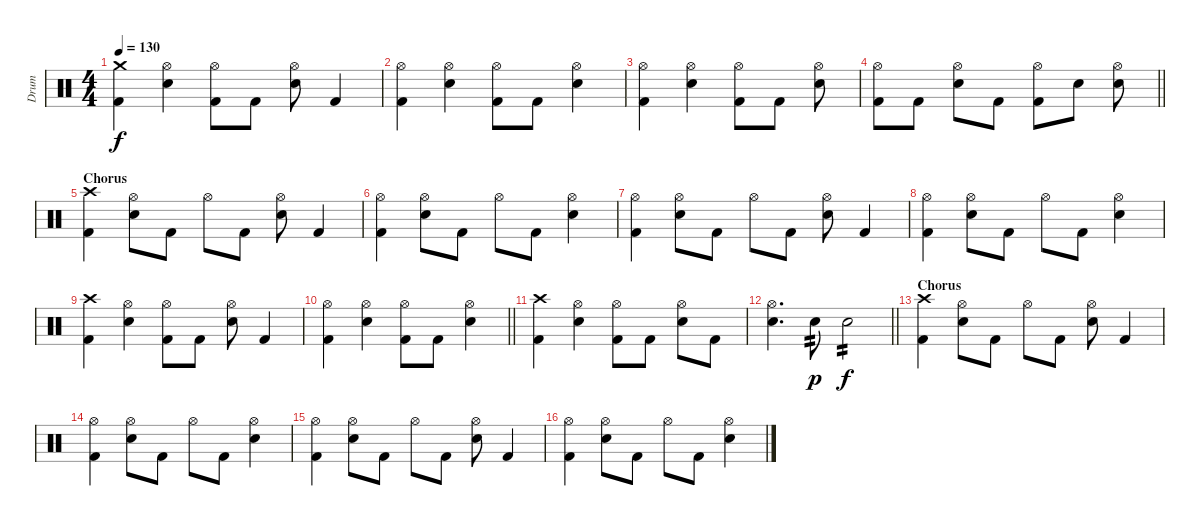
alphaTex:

\track ("Drum" "Drum") {instrument percussion}
\staff {score}
\articulation defaults
\ts (4 4)
\tempo 130
\clef neutral
\ks c
("Crash medium (hit)" "Kick (hit) 2").4{dy f} ("Hi-Hat (open)" "Electric Snare (hit)").4 ("Hi-Hat (open)" "Kick (hit) 2").8 "Kick (hit) 2".8 ("Hi-Hat (open)" "Electric Snare (hit)").8 "Kick (hit) 2".4 |
("Hi-Hat (open)" "Kick (hit) 2").4 ("Hi-Hat (open)" "Electric Snare (hit)").4 ("Hi-Hat (open)" "Kick (hit) 2").8 "Kick (hit) 2".8 ("Hi-Hat (open)" "Electric Snare (hit)").4 |
("Hi-Hat (open)" "Kick (hit) 2").4 ("Hi-Hat (open)" "Electric Snare (hit)").4 ("Hi-Hat (open)" "Kick (hit) 2").8 "Kick (hit) 2".8 ("Hi-Hat (open)" "Electric Snare (hit)").8 |
\barLineRight lightlight
("Hi-Hat (open)" "Kick (hit) 2").8 "Kick (hit) 2".8 ("Hi-Hat (open)" "Electric Snare (hit)").8 "Kick (hit) 2".8 ("Hi-Hat (open)" "Kick (hit) 2").8 "Electric Snare (hit)".8 ("Hi-Hat (open)" "Electric Snare (hit)").8 |
\section ("" "Chorus")
("Crash high (hit)" "Kick (hit) 2").4 ("Hi-Hat (open)" "Electric Snare (hit)").8 "Kick (hit) 2".8 "Hi-Hat (open)".8 "Kick (hit) 2".8 ("Hi-Hat (open)" "Electric Snare (hit)").8 "Kick (hit) 2".4 |
("Hi-Hat (open)" "Kick (hit) 2").4 ("Hi-Hat (open)" "Electric Snare (hit)").8 "Kick (hit) 2".8 "Hi-Hat (open)".8 "Kick (hit) 2".8 ("Hi-Hat (open)" "Electric Snare (hit)").4 |
("Hi-Hat (open)" "Kick (hit) 2").4 ("Hi-Hat (open)" "Electric Snare (hit)").8 "Kick (hit) 2".8 "Hi-Hat (open)".8 "Kick (hit) 2".8 ("Hi-Hat (open)" "Electric Snare (hit)").8 "Kick (hit) 2".4 |
("Hi-Hat (open)" "Kick (hit) 2").4 ("Hi-Hat (open)" "Electric Snare (hit)").8 "Kick (hit) 2".8 "Hi-Hat (open)".8 "Kick (hit) 2".8 ("Hi-Hat (open)" "Electric Snare (hit)").4 |
("Crash high (hit)" "Kick (hit) 2").4 ("Hi-Hat (open)" "Electric Snare (hit)").4 ("Hi-Hat (open)" "Kick (hit) 2").8 "Kick (hit) 2".8 ("Hi-Hat (open)" "Electric Snare (hit)").8 "Kick (hit) 2".4 |
\barLineRight lightlight
("Hi-Hat (open)" "Kick (hit) 2").4 ("Hi-Hat (open)" "Electric Snare (hit)").4 ("Hi-Hat (open)" "Kick (hit) 2").8 "Kick (hit) 2".8 ("Hi-Hat (open)" "Electric Snare (hit)").4 |
("Crash high (hit)" "Kick (hit) 2").4 ("Hi-Hat (open)" "Electric Snare (hit)").4 ("Hi-Hat (open)" "Kick (hit) 2").8 "Kick (hit) 2".8 ("Hi-Hat (open)" "Electric Snare (hit)").8 "Kick (hit) 2".8 |
\barLineRight lightlight
("Hi-Hat (open)" "Electric Snare (hit)").4{d} "Electric Snare (hit)".8{tp 2 dy p} "Electric Snare (hit)".2{tp 2 dy f} |
\section ("" "Chorus")
("Crash high (hit)" "Kick (hit) 2").4 ("Hi-Hat (open)" "Electric Snare (hit)").8 "Kick (hit) 2".8 "Hi-Hat (open)".8 "Kick (hit) 2".8 ("Hi-Hat (open)" "Electric Snare (hit)").8 "Kick (hit) 2".4 |
("Hi-Hat (open)" "Kick (hit) 2").4 ("Hi-Hat (open)" "Electric Snare (hit)").8 "Kick (hit) 2".8 "Hi-Hat (open)".8 "Kick (hit) 2".8 ("Hi-Hat (open)" "Electric Snare (hit)").4 |
("Hi-Hat (open)" "Kick (hit) 2").4 ("Hi-Hat (open)" "Electric Snare (hit)").8 "Kick (hit) 2".8 "Hi-Hat (open)".8 "Kick (hit) 2".8 ("Hi-Hat (open)" "Electric Snare (hit)").8 "Kick (hit) 2".4 |
("Hi-Hat (open)" "Kick (hit) 2").4 ("Hi-Hat (open)" "Electric Snare (hit)").8 "Kick (hit) 2".8 "Hi-Hat (open)".8 "Kick (hit) 2".8 ("Hi-Hat (open)" "Electric Snare (hit)").4
